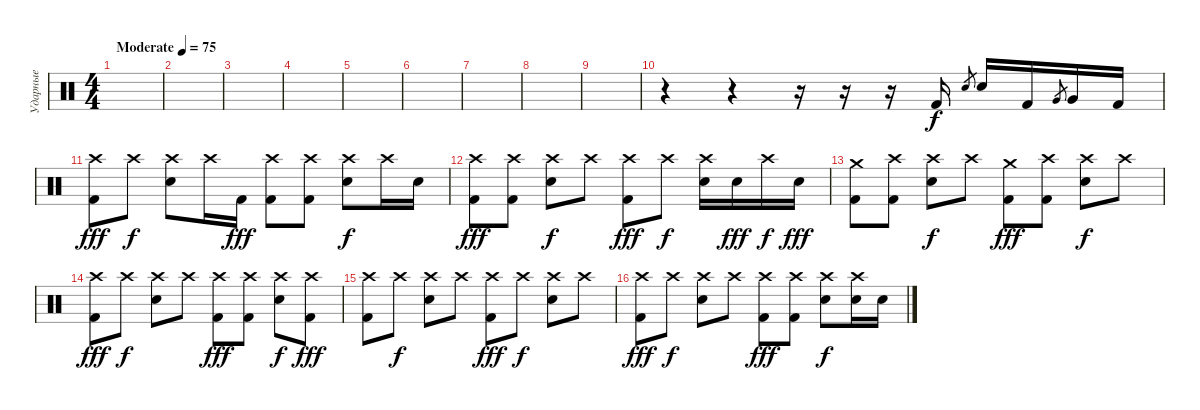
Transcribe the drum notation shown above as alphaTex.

\track ("Ударные" "Ударные") {instrument percussion}
\staff {score}
\articulation defaults
\ts (4 4)
\tempo (75 "Moderate")
\clef neutral
\ks c
|
|
|
|
|
|
|
|
|
r.4 r.4 r.16 r.16 r.16 "Kick (hit) 2".16 "Electric Snare (hit)".8{gr} "Electric Snare (hit)".16 "Kick (hit) 2".16 "Very Low Tom (hit)".8{gr} "Very Low Tom (hit)".16 "Kick (hit) 2".16 |
("Crash high (hit)" "Kick (hit) 2").8{dy fff} "Crash high (hit)".8{dy f} ("Crash high (hit)" "Electric Snare (hit)").8 "Crash high (hit)".16 "Kick (hit) 2".16{dy fff} ("Crash high (hit)" "Kick (hit) 2").8 ("Crash high (hit)" "Kick (hit) 2").8 ("Crash high (hit)" "Electric Snare (hit)").8{dy f} "Crash high (hit)".16 "Electric Snare (hit)".16 |
("Crash high (hit)" "Kick (hit) 2").8{dy fff} ("Crash high (hit)" "Kick (hit) 2").8 ("Crash high (hit)" "Electric Snare (hit)").8{dy f} "Crash high (hit)".8 ("Crash high (hit)" "Kick (hit) 2").8{dy fff} "Crash high (hit)".8{dy f} ("Crash high (hit)" "Electric Snare (hit)").16 "Electric Snare (hit)".16{dy fff} "Crash high (hit)".16{dy f} "Electric Snare (hit)".16{dy fff} |
("Crash medium (hit)" "Kick (hit) 2").8 ("Crash high (hit)" "Kick (hit) 2").8 ("Crash high (hit)" "Electric Snare (hit)").8{dy f} "Crash high (hit)".8 ("Crash medium (hit)" "Kick (hit) 2").8{dy fff} ("Crash high (hit)" "Kick (hit) 2").8 ("Crash high (hit)" "Electric Snare (hit)").8{dy f} "Crash high (hit)".8 |
("Crash high (hit)" "Kick (hit) 2").8{dy fff} "Crash high (hit)".8{dy f} ("Crash high (hit)" "Electric Snare (hit)").8 "Crash high (hit)".8 ("Crash high (hit)" "Kick (hit) 2").8{dy fff} ("Crash high (hit)" "Kick (hit) 2").8 ("Crash high (hit)" "Electric Snare (hit)").8{dy f} ("Crash high (hit)" "Kick (hit) 2").8{dy fff} |
("Crash high (hit)" "Kick (hit) 2").8 "Crash high (hit)".8{dy f} ("Crash high (hit)" "Electric Snare (hit)").8 "Crash high (hit)".8 ("Crash high (hit)" "Kick (hit) 2").8{dy fff} "Crash high (hit)".8{dy f} ("Crash high (hit)" "Electric Snare (hit)").8 "Crash high (hit)".8 |
("Crash high (hit)" "Kick (hit) 2").8{dy fff} "Crash high (hit)".8{dy f} ("Crash high (hit)" "Electric Snare (hit)").8 "Crash high (hit)".8 ("Crash high (hit)" "Kick (hit) 2").8{dy fff} ("Crash high (hit)" "Kick (hit) 2").8 ("Crash high (hit)" "Electric Snare (hit)").8{dy f} ("Crash high (hit)" "Electric Snare (hit)").16 "Electric Snare (hit)".16
